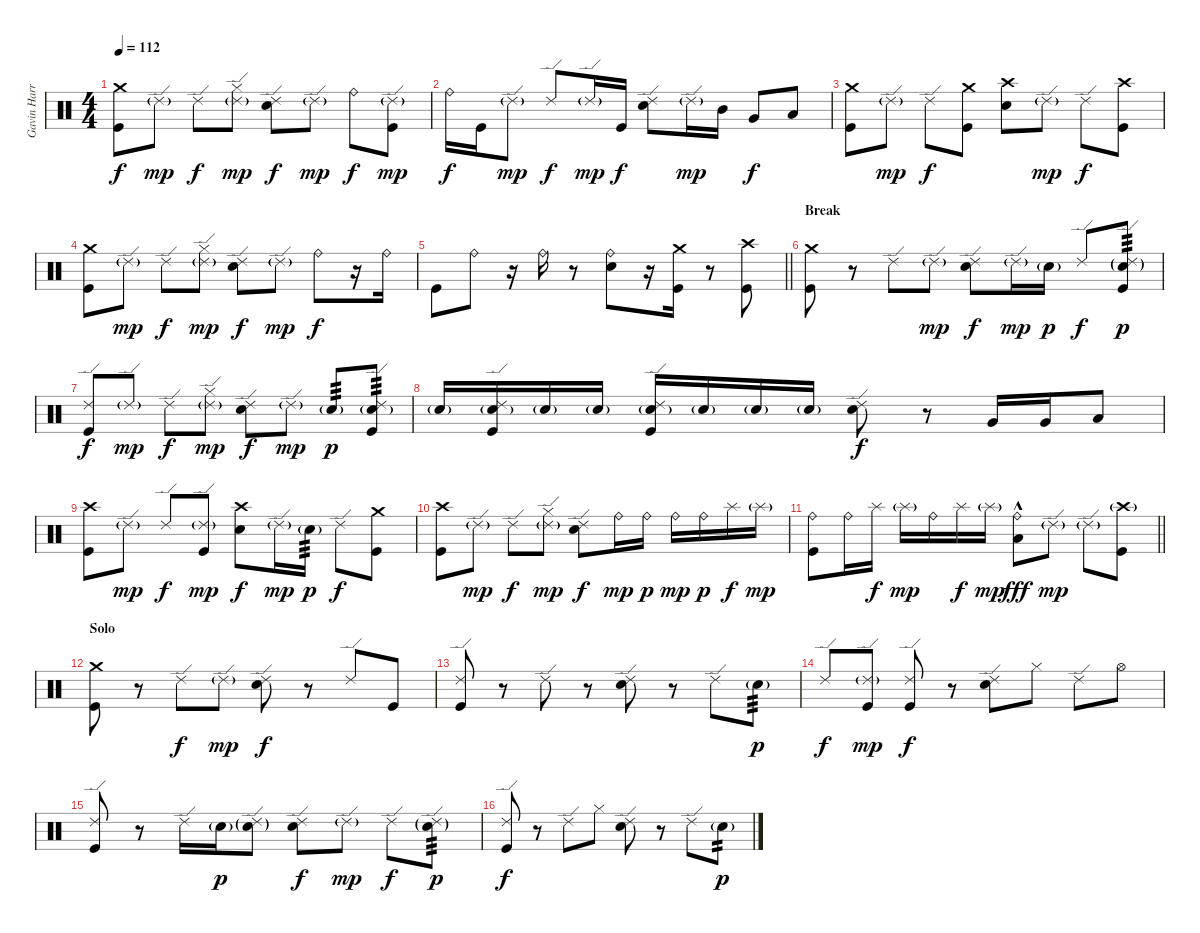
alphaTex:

\track ("Gavin Harrison - Drums" "Gavin Harr") {instrument percussion}
\staff {score}
\articulation defaults
\ts (4 4)
\tempo 112
\clef neutral
\ks c
("Crash medium (hit)" "Kick (hit)").8{dy f} "Ride (edge) 2"{g}.8{dy mp} "Ride (edge) 2".8{dy f} ("Ride (edge) 2"{g} "Hi-Hat (closed)").8{dy mp} ("Ride (edge) 2" "Snare (hit) 2").8{dy f} "Ride (edge) 2"{g}.8{dy mp} "Ride (bell)".8{dy f} ("Ride (edge) 2"{g} "Kick (hit)").8{dy mp} |
"Ride (bell)".16{dy f} "Kick (hit)".16 "Ride (edge) 2"{g}.8{dy mp} "Ride (edge) 2".8{dy f} "Ride (edge) 2"{g}.16{dy mp} "Kick (hit)".16{dy f} ("Ride (edge) 2" "Snare (hit) 2").8 "Ride (edge) 2"{g}.16{dy mp} "Mid Tom (hit)".16 "Very Low Tom (hit)".8{dy f} "Low Floor Tom (hit)".8 |
("Crash medium (hit)" "Kick (hit)").8 "Ride (edge) 2"{g}.8{dy mp} "Ride (edge) 2".8{dy f} ("Crash medium (hit)" "Kick (hit)").8 ("Crash high (hit)" "Snare (hit) 2").8 "Ride (edge) 2"{g}.8{dy mp} "Ride (edge) 2".8{dy f} ("Crash high (hit)" "Kick (hit)").8 |
("Crash medium (hit)" "Kick (hit)").8 "Ride (edge) 2"{g}.8{dy mp} "Ride (edge) 2".8{dy f} ("Ride (edge) 2"{g} "Hi-Hat (closed)").8{dy mp} ("Ride (edge) 2" "Snare (hit) 2").8{dy f} "Ride (edge) 2"{g}.8{dy mp} "Ride (bell)".8{dy f} r.16 "Ride (bell)".16 |
\barLineRight lightlight "Kick (hit)".8 "Ride (bell)".8
r.16 "Ride (bell)".16 r.8 ("Ride (bell)" "Snare (hit) 2").8 r.16 ("Crash medium (hit)" "Kick (hit)").16 r.8 ("Crash high (hit)" "Kick (hit)").8 |
\section ("" "Break")
("Crash medium (hit)" "Kick (hit)").8 r.8 "Ride (edge) 2".8 "Ride (edge) 2"{g}.8{dy mp} ("Ride (edge) 2" "Snare (hit) 2").8{dy f} "Ride (edge) 2"{g}.16{dy mp} "Snare (hit) 2"{g}.16{dy p} "Ride (edge) 2".8{dy f} ("Ride (edge) 2"{g} "Snare (hit) 2"{g} "Kick (hit)").8{tp 3 dy p} |
("Ride (edge) 2" "Kick (hit)").8{dy f} "Ride (edge) 2"{g}.8{dy mp} "Ride (edge) 2".8{dy f} ("Ride (edge) 2"{g} "Hi-Hat (closed)").8{dy mp} ("Ride (edge) 2" "Snare (hit) 2").8{dy f} "Ride (edge) 2"{g}.8{dy mp} "Snare (hit) 2"{g}.8{tp 3 dy p} ("Ride (edge) 2" "Snare (hit) 2"{g} "Kick (hit)").8{tp 3} |
"Snare (hit) 2"{g}.16 ("Ride (edge) 2" "Snare (hit) 2"{g} "Kick (hit)").16 "Snare (hit) 2"{g}.16 "Snare (hit) 2"{g}.16 ("Ride (edge) 2" "Snare (hit) 2"{g} "Kick (hit)").16 "Snare (hit) 2"{g}.16 "Snare (hit) 2"{g}.16 "Snare (hit) 2"{g}.16 ("Ride (edge) 2" "Snare (hit) 2").8{dy f} r.8 "Very Low Tom (hit)".16 "Very Low Tom (hit)".16 "Low Floor Tom (hit)".8 |
("Crash high (hit)" "Kick (hit)").8 "Ride (edge) 2"{g}.8{dy mp} "Ride (edge) 2".8{dy f} ("Ride (edge) 2"{g} "Kick (hit)").8{dy mp} ("Crash high (hit)" "Snare (hit) 2").8{dy f} "Ride (edge) 2"{g}.16{dy mp} "Snare (hit) 2"{g}.16{tp 3 dy p} "Ride (edge) 2".8{dy f} ("Crash medium (hit)" "Kick (hit)").8 |
("Crash high (hit)" "Kick (hit)").8 "Ride (edge) 2"{g}.8{dy mp} "Ride (edge) 2".8{dy f} ("Ride (edge) 2"{g} "Hi-Hat (closed)").8{dy mp} ("Ride (edge) 2" "Snare (hit) 2").8{dy f} "Ride (bell)".16{dy mp} "Ride (bell)".16{dy p} "Ride (bell)".16{dy mp} "Ride (bell)".16{dy p} "Splash (hit)".16{dy f} "Splash (hit)"{g}.16{dy mp} |
\barLineRight lightlight
("Ride (bell)" "Kick (hit)").8 "Ride (bell)".16 "Splash (hit)".16{dy f} "Splash (hit)"{g}.16{dy mp} "Ride (bell)".16 "Splash (hit)".16{dy f} "Splash (hit)"{g}.16{dy mp} ("Ride (bell)" "Low Floor Tom (hit)"{hac}).8{dy fff} "Ride (edge) 2"{g}.8{dy mp} "Ride (edge) 2"{g}.8 ("Crash high (hit)"{g} "Kick (hit)").8 |
\section ("" "Solo")
("Crash medium (hit)" "Kick (hit)").8 r.8 "Ride (edge) 2".8{dy f} "Ride (edge) 2"{g}.8{dy mp} ("Ride (edge) 2" "Snare (hit) 2").8{dy f} r.8 "Ride (edge) 2".8 "Kick (hit)".8 |
("Ride (edge) 2" "Kick (hit)").8 r.8 "Ride (edge) 2".8 r.8 ("Ride (edge) 2" "Snare (hit) 2").8 r.8 "Ride (edge) 2".8 "Snare (hit) 2"{g}.8{tp 3 dy p} |
"Ride (edge) 2".8{dy f} ("Ride (edge) 2"{g} "Kick (hit)").8{dy mp} ("Ride (edge) 2" "Kick (hit)").8{dy f} r.8 ("Ride (edge) 2" "Snare (hit) 2").8 "Hi-Hat (closed)".8 "Ride (edge) 2".8 "Hi-Hat (open)".8 |
("Ride (edge) 2" "Kick (hit)").8 r.8 "Ride (edge) 2".16 "Snare (hit) 2"{g}.16{dy p} ("Ride (edge) 2"{g} "Snare (hit) 2"{g}).8 ("Ride (edge) 2" "Snare (hit) 2").8{dy f} "Ride (edge) 2"{g}.8{dy mp} "Ride (edge) 2".8{dy f} ("Ride (edge) 2"{g} "Snare (hit) 2"{g}).8{tp 3 dy p} |
("Ride (edge) 2" "Kick (hit)").8{dy f} r.8 "Ride (edge) 2".8 "Hi-Hat (closed)".8 ("Ride (edge) 2" "Snare (hit) 2").8 r.8 "Ride (edge) 2".8 "Snare (hit) 2"{g}.8{tp 2 dy p}
